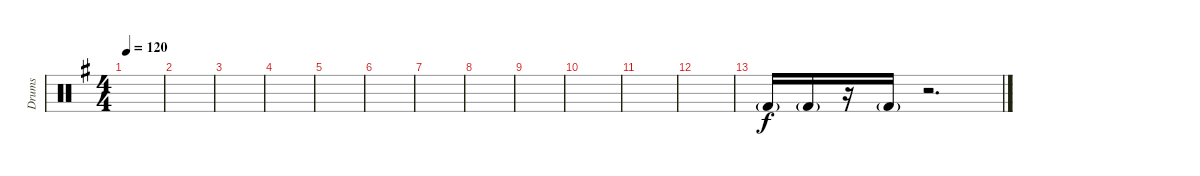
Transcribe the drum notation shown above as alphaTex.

\track ("Drums" "Drums") {instrument percussion}
\staff {score}
\articulation defaults
\ts (4 4)
\tempo 120
\clef neutral
\ks g
|
|
|
|
|
|
|
|
|
|
|
|
"Kick (hit) 2"{g}.16 "Kick (hit) 2"{g}.16 r.16 "Kick (hit) 2"{g}.16 r.2{d}
